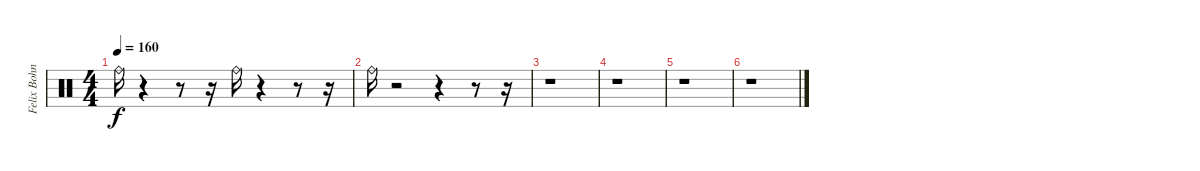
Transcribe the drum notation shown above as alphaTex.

\track ("Felix Bohnke" "Felix Bohn") {instrument percussion}
\staff {score}
\articulation defaults
\ts (4 4)
\tempo 160
\clef neutral
\ks c "Ride (bell)".16{dy f}
r.4 r.8 r.16 "Ride (bell)".16 r.4 r.8 r.16 |
"Ride (bell)".16 r.2 r.4 r.8 r.16 |
r.1 |
r.1 |
r.1 |
r.1
